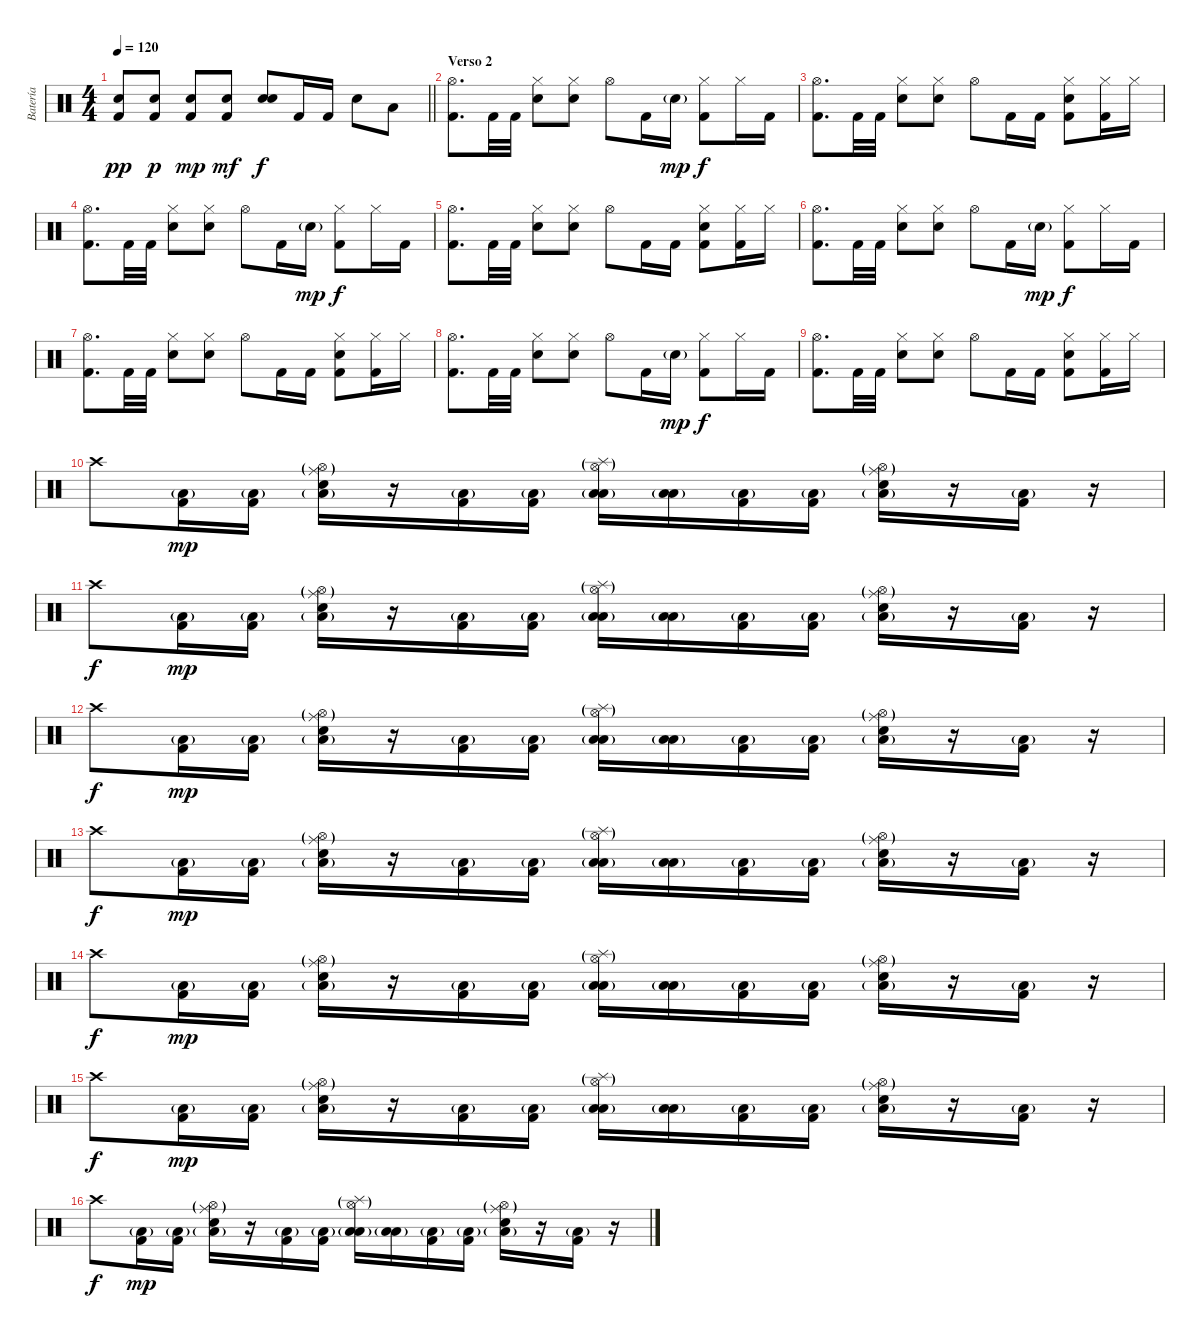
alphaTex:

\track ("Batería" "Batería") {instrument percussion}
\staff {score}
\articulation defaults
\ts (4 4)
\tempo 120
\clef neutral
\barLineRight lightlight
\ks c
("Snare (hit) 2" "Kick (hit) 2").8{dy pp} ("Snare (hit) 2" "Kick (hit) 2").8{dy p} ("Snare (hit) 2" "Kick (hit) 2").8{dy mp} ("Snare (hit) 2" "Kick (hit) 2").8{dy mf} ("Snare (hit) 2" "Snare (hit) 2").8{dy f} "Kick (hit) 2".16 "Kick (hit) 2".16 "Snare (hit) 2".8 "Low Tom (hit)".8 |
\section ("" "Verso 2")
("Hi-Hat (open)" "Kick (hit) 2").8{d} "Kick (hit) 2".32 "Kick (hit) 2".32 ("Hi-Hat (closed)" "Electric Snare (hit)").8 ("Hi-Hat (closed)" "Electric Snare (hit)").8 "Hi-Hat (open)".8 "Kick (hit) 2".16 "Electric Snare (hit)"{g}.16{dy mp} ("Hi-Hat (closed)" "Kick (hit) 2").8{dy f} "Hi-Hat (closed)".16 "Kick (hit) 2".16 |
("Hi-Hat (open)" "Kick (hit) 2").8{d} "Kick (hit) 2".32 "Kick (hit) 2".32 ("Hi-Hat (closed)" "Electric Snare (hit)").8 ("Hi-Hat (closed)" "Electric Snare (hit)").8 "Hi-Hat (open)".8 "Kick (hit) 2".16 "Kick (hit) 2".16 ("Hi-Hat (closed)" "Electric Snare (hit)" "Kick (hit) 2").8 ("Hi-Hat (closed)" "Kick (hit) 2").16 "Hi-Hat (closed)".16 |
("Hi-Hat (open)" "Kick (hit) 2").8{d} "Kick (hit) 2".32 "Kick (hit) 2".32 ("Hi-Hat (closed)" "Electric Snare (hit)").8 ("Hi-Hat (closed)" "Electric Snare (hit)").8 "Hi-Hat (open)".8 "Kick (hit) 2".16 "Electric Snare (hit)"{g}.16{dy mp} ("Hi-Hat (closed)" "Kick (hit) 2").8{dy f} "Hi-Hat (closed)".16 "Kick (hit) 2".16 |
("Hi-Hat (open)" "Kick (hit) 2").8{d} "Kick (hit) 2".32 "Kick (hit) 2".32 ("Hi-Hat (closed)" "Electric Snare (hit)").8 ("Hi-Hat (closed)" "Electric Snare (hit)").8 "Hi-Hat (open)".8 "Kick (hit) 2".16 "Kick (hit) 2".16 ("Hi-Hat (closed)" "Electric Snare (hit)" "Kick (hit) 2").8 ("Hi-Hat (closed)" "Kick (hit) 2").16 "Hi-Hat (closed)".16 |
("Hi-Hat (open)" "Kick (hit) 2").8{d} "Kick (hit) 2".32 "Kick (hit) 2".32 ("Hi-Hat (closed)" "Electric Snare (hit)").8 ("Hi-Hat (closed)" "Electric Snare (hit)").8 "Hi-Hat (open)".8 "Kick (hit) 2".16 "Electric Snare (hit)"{g}.16{dy mp} ("Hi-Hat (closed)" "Kick (hit) 2").8{dy f} "Hi-Hat (closed)".16 "Kick (hit) 2".16 |
("Hi-Hat (open)" "Kick (hit) 2").8{d} "Kick (hit) 2".32 "Kick (hit) 2".32 ("Hi-Hat (closed)" "Electric Snare (hit)").8 ("Hi-Hat (closed)" "Electric Snare (hit)").8 "Hi-Hat (open)".8 "Kick (hit) 2".16 "Kick (hit) 2".16 ("Hi-Hat (closed)" "Electric Snare (hit)" "Kick (hit) 2").8 ("Hi-Hat (closed)" "Kick (hit) 2").16 "Hi-Hat (closed)".16 |
("Hi-Hat (open)" "Kick (hit) 2").8{d} "Kick (hit) 2".32 "Kick (hit) 2".32 ("Hi-Hat (closed)" "Electric Snare (hit)").8 ("Hi-Hat (closed)" "Electric Snare (hit)").8 "Hi-Hat (open)".8 "Kick (hit) 2".16 "Electric Snare (hit)"{g}.16{dy mp} ("Hi-Hat (closed)" "Kick (hit) 2").8{dy f} "Hi-Hat (closed)".16 "Kick (hit) 2".16 |
("Hi-Hat (open)" "Kick (hit) 2").8{d} "Kick (hit) 2".32 "Kick (hit) 2".32 ("Hi-Hat (closed)" "Electric Snare (hit)").8 ("Hi-Hat (closed)" "Electric Snare (hit)").8 "Hi-Hat (open)".8 "Kick (hit) 2".16 "Kick (hit) 2".16 ("Hi-Hat (closed)" "Electric Snare (hit)" "Kick (hit) 2").8 ("Hi-Hat (closed)" "Kick (hit) 2").16 "Hi-Hat (closed)".16 |
"Crash high (hit)".8 ("Low Floor Tom (hit)"{g} "Kick (hit) 2").16{dy mp} ("Low Floor Tom (hit)"{g} "Kick (hit) 2").16 ("Ride (middle)"{g} "Hi-Hat (open)"{g} "Electric Snare (hit)" "Low Floor Tom (hit)"{g}).16 r.16 ("Low Floor Tom (hit)"{g} "Kick (hit) 2").16 ("Low Floor Tom (hit)"{g} "Kick (hit) 2").16 ("Hi-Hat (open)"{g} "Splash (hit)"{g} "Low Tom (hit)" "Low Floor Tom (hit)"{g}).16 ("Low Tom (hit)" "Low Floor Tom (hit)"{g}).16 ("Low Floor Tom (hit)"{g} "Kick (hit) 2").16 ("Low Floor Tom (hit)"{g} "Kick (hit) 2").16 ("Ride (middle)"{g} "Hi-Hat (open)"{g} "Electric Snare (hit)" "Low Floor Tom (hit)"{g}).16 r.16 ("Low Floor Tom (hit)"{g} "Kick (hit) 2").16 r.16 |
"Crash high (hit)".8{dy f} ("Low Floor Tom (hit)"{g} "Kick (hit) 2").16{dy mp} ("Low Floor Tom (hit)"{g} "Kick (hit) 2").16 ("Ride (middle)"{g} "Hi-Hat (open)"{g} "Electric Snare (hit)" "Low Floor Tom (hit)"{g}).16 r.16 ("Low Floor Tom (hit)"{g} "Kick (hit) 2").16 ("Low Floor Tom (hit)"{g} "Kick (hit) 2").16 ("Hi-Hat (open)"{g} "Splash (hit)"{g} "Low Tom (hit)" "Low Floor Tom (hit)"{g}).16 ("Low Tom (hit)" "Low Floor Tom (hit)"{g}).16 ("Low Floor Tom (hit)"{g} "Kick (hit) 2").16 ("Low Floor Tom (hit)"{g} "Kick (hit) 2").16 ("Ride (middle)"{g} "Hi-Hat (open)"{g} "Electric Snare (hit)" "Low Floor Tom (hit)"{g}).16 r.16 ("Low Floor Tom (hit)"{g} "Kick (hit) 2").16 r.16 |
"Crash high (hit)".8{dy f} ("Low Floor Tom (hit)"{g} "Kick (hit) 2").16{dy mp} ("Low Floor Tom (hit)"{g} "Kick (hit) 2").16 ("Ride (middle)"{g} "Hi-Hat (open)"{g} "Electric Snare (hit)" "Low Floor Tom (hit)"{g}).16 r.16 ("Low Floor Tom (hit)"{g} "Kick (hit) 2").16 ("Low Floor Tom (hit)"{g} "Kick (hit) 2").16 ("Hi-Hat (open)"{g} "Splash (hit)"{g} "Low Tom (hit)" "Low Floor Tom (hit)"{g}).16 ("Low Tom (hit)" "Low Floor Tom (hit)"{g}).16 ("Low Floor Tom (hit)"{g} "Kick (hit) 2").16 ("Low Floor Tom (hit)"{g} "Kick (hit) 2").16 ("Ride (middle)"{g} "Hi-Hat (open)"{g} "Electric Snare (hit)" "Low Floor Tom (hit)"{g}).16 r.16 ("Low Floor Tom (hit)"{g} "Kick (hit) 2").16 r.16 |
"Crash high (hit)".8{dy f} ("Low Floor Tom (hit)"{g} "Kick (hit) 2").16{dy mp} ("Low Floor Tom (hit)"{g} "Kick (hit) 2").16 ("Ride (middle)"{g} "Hi-Hat (open)"{g} "Electric Snare (hit)" "Low Floor Tom (hit)"{g}).16 r.16 ("Low Floor Tom (hit)"{g} "Kick (hit) 2").16 ("Low Floor Tom (hit)"{g} "Kick (hit) 2").16 ("Hi-Hat (open)"{g} "Splash (hit)"{g} "Low Tom (hit)" "Low Floor Tom (hit)"{g}).16 ("Low Tom (hit)" "Low Floor Tom (hit)"{g}).16 ("Low Floor Tom (hit)"{g} "Kick (hit) 2").16 ("Low Floor Tom (hit)"{g} "Kick (hit) 2").16 ("Ride (middle)"{g} "Hi-Hat (open)"{g} "Electric Snare (hit)" "Low Floor Tom (hit)"{g}).16 r.16 ("Low Floor Tom (hit)"{g} "Kick (hit) 2").16 r.16 |
"Crash high (hit)".8{dy f} ("Low Floor Tom (hit)"{g} "Kick (hit) 2").16{dy mp} ("Low Floor Tom (hit)"{g} "Kick (hit) 2").16 ("Ride (middle)"{g} "Hi-Hat (open)"{g} "Electric Snare (hit)" "Low Floor Tom (hit)"{g}).16 r.16 ("Low Floor Tom (hit)"{g} "Kick (hit) 2").16 ("Low Floor Tom (hit)"{g} "Kick (hit) 2").16 ("Hi-Hat (open)"{g} "Splash (hit)"{g} "Low Tom (hit)" "Low Floor Tom (hit)"{g}).16 ("Low Tom (hit)" "Low Floor Tom (hit)"{g}).16 ("Low Floor Tom (hit)"{g} "Kick (hit) 2").16 ("Low Floor Tom (hit)"{g} "Kick (hit) 2").16 ("Ride (middle)"{g} "Hi-Hat (open)"{g} "Electric Snare (hit)" "Low Floor Tom (hit)"{g}).16 r.16 ("Low Floor Tom (hit)"{g} "Kick (hit) 2").16 r.16 |
"Crash high (hit)".8{dy f} ("Low Floor Tom (hit)"{g} "Kick (hit) 2").16{dy mp} ("Low Floor Tom (hit)"{g} "Kick (hit) 2").16 ("Ride (middle)"{g} "Hi-Hat (open)"{g} "Electric Snare (hit)" "Low Floor Tom (hit)"{g}).16 r.16 ("Low Floor Tom (hit)"{g} "Kick (hit) 2").16 ("Low Floor Tom (hit)"{g} "Kick (hit) 2").16 ("Hi-Hat (open)"{g} "Splash (hit)"{g} "Low Tom (hit)" "Low Floor Tom (hit)"{g}).16 ("Low Tom (hit)" "Low Floor Tom (hit)"{g}).16 ("Low Floor Tom (hit)"{g} "Kick (hit) 2").16 ("Low Floor Tom (hit)"{g} "Kick (hit) 2").16 ("Ride (middle)"{g} "Hi-Hat (open)"{g} "Electric Snare (hit)" "Low Floor Tom (hit)"{g}).16 r.16 ("Low Floor Tom (hit)"{g} "Kick (hit) 2").16 r.16 |
"Crash high (hit)".8{dy f} ("Low Floor Tom (hit)"{g} "Kick (hit) 2").16{dy mp} ("Low Floor Tom (hit)"{g} "Kick (hit) 2").16 ("Ride (middle)"{g} "Hi-Hat (open)"{g} "Electric Snare (hit)" "Low Floor Tom (hit)"{g}).16 r.16 ("Low Floor Tom (hit)"{g} "Kick (hit) 2").16 ("Low Floor Tom (hit)"{g} "Kick (hit) 2").16 ("Hi-Hat (open)"{g} "Splash (hit)"{g} "Low Tom (hit)" "Low Floor Tom (hit)"{g}).16 ("Low Tom (hit)" "Low Floor Tom (hit)"{g}).16 ("Low Floor Tom (hit)"{g} "Kick (hit) 2").16 ("Low Floor Tom (hit)"{g} "Kick (hit) 2").16 ("Ride (middle)"{g} "Hi-Hat (open)"{g} "Electric Snare (hit)" "Low Floor Tom (hit)"{g}).16 r.16 ("Low Floor Tom (hit)"{g} "Kick (hit) 2").16 r.16
